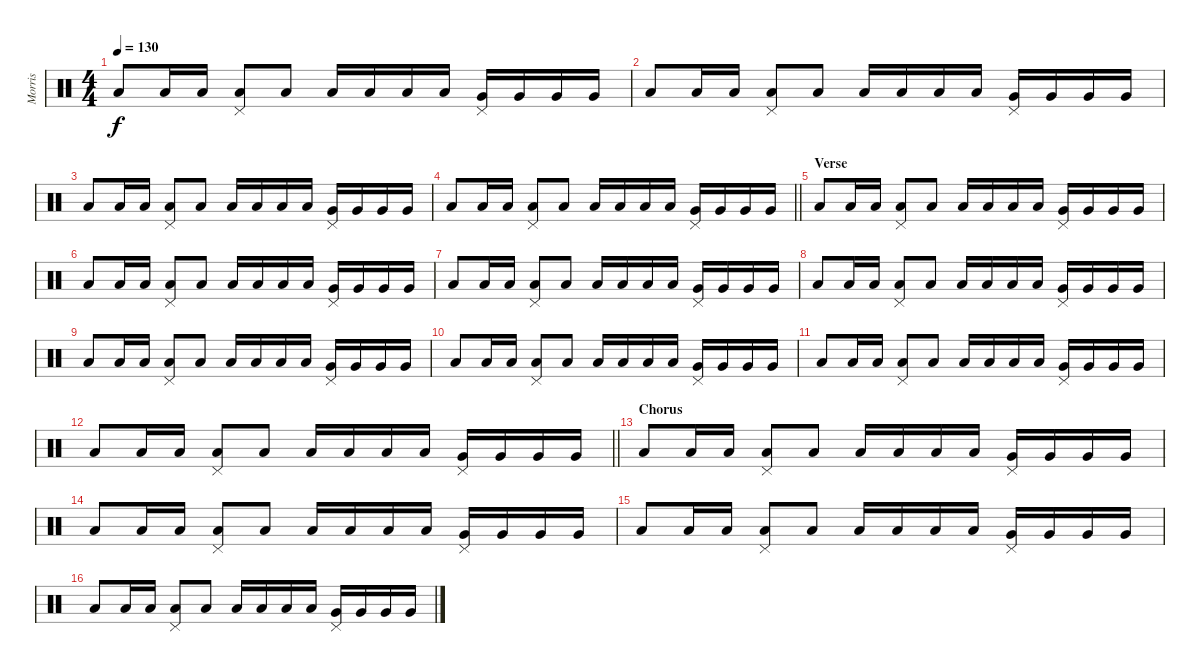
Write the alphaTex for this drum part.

\track ("Morris" "Morris") {instrument percussion}
\staff {score}
\articulation defaults
\ts (4 4)
\tempo 130
\clef neutral
\ks c "Low Floor Tom (hit)".8{dy f} "Low Floor Tom (hit)".16 "Low Floor Tom (hit)".16
("Low Tom (hit)" "Pedal Hi-Hat (hit)").8 "Low Floor Tom (hit)".8 "Low Tom (hit)".16 "Low Tom (hit)".16 "Low Tom (hit)".16 "Low Tom (hit)".16 ("Very Low Tom (hit)" "Pedal Hi-Hat (hit)").16 "Very Low Tom (hit)".16 "Very Low Tom (hit)".16 "Very Low Tom (hit)".16 |
"Low Floor Tom (hit)".8 "Low Floor Tom (hit)".16 "Low Floor Tom (hit)".16 ("Low Tom (hit)" "Pedal Hi-Hat (hit)").8 "Low Floor Tom (hit)".8 "Low Tom (hit)".16 "Low Tom (hit)".16 "Low Tom (hit)".16 "Low Tom (hit)".16 ("Very Low Tom (hit)" "Pedal Hi-Hat (hit)").16 "Very Low Tom (hit)".16 "Very Low Tom (hit)".16 "Very Low Tom (hit)".16 |
"Low Floor Tom (hit)".8 "Low Floor Tom (hit)".16 "Low Floor Tom (hit)".16 ("Low Tom (hit)" "Pedal Hi-Hat (hit)").8 "Low Floor Tom (hit)".8 "Low Tom (hit)".16 "Low Tom (hit)".16 "Low Tom (hit)".16 "Low Tom (hit)".16 ("Very Low Tom (hit)" "Pedal Hi-Hat (hit)").16 "Very Low Tom (hit)".16 "Very Low Tom (hit)".16 "Very Low Tom (hit)".16 |
\barLineRight lightlight "Low Floor Tom (hit)".8 "Low Floor Tom (hit)".16 "Low Floor Tom (hit)".16
("Low Tom (hit)" "Pedal Hi-Hat (hit)").8 "Low Floor Tom (hit)".8 "Low Tom (hit)".16 "Low Tom (hit)".16 "Low Tom (hit)".16 "Low Tom (hit)".16 ("Very Low Tom (hit)" "Pedal Hi-Hat (hit)").16 "Very Low Tom (hit)".16 "Very Low Tom (hit)".16 "Very Low Tom (hit)".16 |
\section ("" "Verse")
"Low Floor Tom (hit)".8 "Low Floor Tom (hit)".16 "Low Floor Tom (hit)".16 ("Low Tom (hit)" "Pedal Hi-Hat (hit)").8 "Low Floor Tom (hit)".8 "Low Tom (hit)".16 "Low Tom (hit)".16 "Low Tom (hit)".16 "Low Tom (hit)".16 ("Very Low Tom (hit)" "Pedal Hi-Hat (hit)").16 "Very Low Tom (hit)".16 "Very Low Tom (hit)".16 "Very Low Tom (hit)".16 |
"Low Floor Tom (hit)".8 "Low Floor Tom (hit)".16 "Low Floor Tom (hit)".16 ("Low Tom (hit)" "Pedal Hi-Hat (hit)").8 "Low Floor Tom (hit)".8 "Low Tom (hit)".16 "Low Tom (hit)".16 "Low Tom (hit)".16 "Low Tom (hit)".16 ("Very Low Tom (hit)" "Pedal Hi-Hat (hit)").16 "Very Low Tom (hit)".16 "Very Low Tom (hit)".16 "Very Low Tom (hit)".16 |
"Low Floor Tom (hit)".8 "Low Floor Tom (hit)".16 "Low Floor Tom (hit)".16 ("Low Tom (hit)" "Pedal Hi-Hat (hit)").8 "Low Floor Tom (hit)".8 "Low Tom (hit)".16 "Low Tom (hit)".16 "Low Tom (hit)".16 "Low Tom (hit)".16 ("Very Low Tom (hit)" "Pedal Hi-Hat (hit)").16 "Very Low Tom (hit)".16 "Very Low Tom (hit)".16 "Very Low Tom (hit)".16 |
"Low Floor Tom (hit)".8 "Low Floor Tom (hit)".16 "Low Floor Tom (hit)".16 ("Low Tom (hit)" "Pedal Hi-Hat (hit)").8 "Low Floor Tom (hit)".8 "Low Tom (hit)".16 "Low Tom (hit)".16 "Low Tom (hit)".16 "Low Tom (hit)".16 ("Very Low Tom (hit)" "Pedal Hi-Hat (hit)").16 "Very Low Tom (hit)".16 "Very Low Tom (hit)".16 "Very Low Tom (hit)".16 |
"Low Floor Tom (hit)".8 "Low Floor Tom (hit)".16 "Low Floor Tom (hit)".16 ("Low Tom (hit)" "Pedal Hi-Hat (hit)").8 "Low Floor Tom (hit)".8 "Low Tom (hit)".16 "Low Tom (hit)".16 "Low Tom (hit)".16 "Low Tom (hit)".16 ("Very Low Tom (hit)" "Pedal Hi-Hat (hit)").16 "Very Low Tom (hit)".16 "Very Low Tom (hit)".16 "Very Low Tom (hit)".16 |
"Low Floor Tom (hit)".8 "Low Floor Tom (hit)".16 "Low Floor Tom (hit)".16 ("Low Tom (hit)" "Pedal Hi-Hat (hit)").8 "Low Floor Tom (hit)".8 "Low Tom (hit)".16 "Low Tom (hit)".16 "Low Tom (hit)".16 "Low Tom (hit)".16 ("Very Low Tom (hit)" "Pedal Hi-Hat (hit)").16 "Very Low Tom (hit)".16 "Very Low Tom (hit)".16 "Very Low Tom (hit)".16 |
"Low Floor Tom (hit)".8 "Low Floor Tom (hit)".16 "Low Floor Tom (hit)".16 ("Low Tom (hit)" "Pedal Hi-Hat (hit)").8 "Low Floor Tom (hit)".8 "Low Tom (hit)".16 "Low Tom (hit)".16 "Low Tom (hit)".16 "Low Tom (hit)".16 ("Very Low Tom (hit)" "Pedal Hi-Hat (hit)").16 "Very Low Tom (hit)".16 "Very Low Tom (hit)".16 "Very Low Tom (hit)".16 |
\barLineRight lightlight "Low Floor Tom (hit)".8 "Low Floor Tom (hit)".16 "Low Floor Tom (hit)".16
("Low Tom (hit)" "Pedal Hi-Hat (hit)").8 "Low Floor Tom (hit)".8 "Low Tom (hit)".16 "Low Tom (hit)".16 "Low Tom (hit)".16 "Low Tom (hit)".16 ("Very Low Tom (hit)" "Pedal Hi-Hat (hit)").16 "Very Low Tom (hit)".16 "Very Low Tom (hit)".16 "Very Low Tom (hit)".16 |
\section ("" "Chorus")
"Low Floor Tom (hit)".8 "Low Floor Tom (hit)".16 "Low Floor Tom (hit)".16 ("Low Tom (hit)" "Pedal Hi-Hat (hit)").8 "Low Floor Tom (hit)".8 "Low Tom (hit)".16 "Low Tom (hit)".16 "Low Tom (hit)".16 "Low Tom (hit)".16 ("Very Low Tom (hit)" "Pedal Hi-Hat (hit)").16 "Very Low Tom (hit)".16 "Very Low Tom (hit)".16 "Very Low Tom (hit)".16 |
"Low Floor Tom (hit)".8 "Low Floor Tom (hit)".16 "Low Floor Tom (hit)".16 ("Low Tom (hit)" "Pedal Hi-Hat (hit)").8 "Low Floor Tom (hit)".8 "Low Tom (hit)".16 "Low Tom (hit)".16 "Low Tom (hit)".16 "Low Tom (hit)".16 ("Very Low Tom (hit)" "Pedal Hi-Hat (hit)").16 "Very Low Tom (hit)".16 "Very Low Tom (hit)".16 "Very Low Tom (hit)".16 |
"Low Floor Tom (hit)".8 "Low Floor Tom (hit)".16 "Low Floor Tom (hit)".16 ("Low Tom (hit)" "Pedal Hi-Hat (hit)").8 "Low Floor Tom (hit)".8 "Low Tom (hit)".16 "Low Tom (hit)".16 "Low Tom (hit)".16 "Low Tom (hit)".16 ("Very Low Tom (hit)" "Pedal Hi-Hat (hit)").16 "Very Low Tom (hit)".16 "Very Low Tom (hit)".16 "Very Low Tom (hit)".16 |
"Low Floor Tom (hit)".8 "Low Floor Tom (hit)".16 "Low Floor Tom (hit)".16 ("Low Tom (hit)" "Pedal Hi-Hat (hit)").8 "Low Floor Tom (hit)".8 "Low Tom (hit)".16 "Low Tom (hit)".16 "Low Tom (hit)".16 "Low Tom (hit)".16 ("Very Low Tom (hit)" "Pedal Hi-Hat (hit)").16 "Very Low Tom (hit)".16 "Very Low Tom (hit)".16 "Very Low Tom (hit)".16
